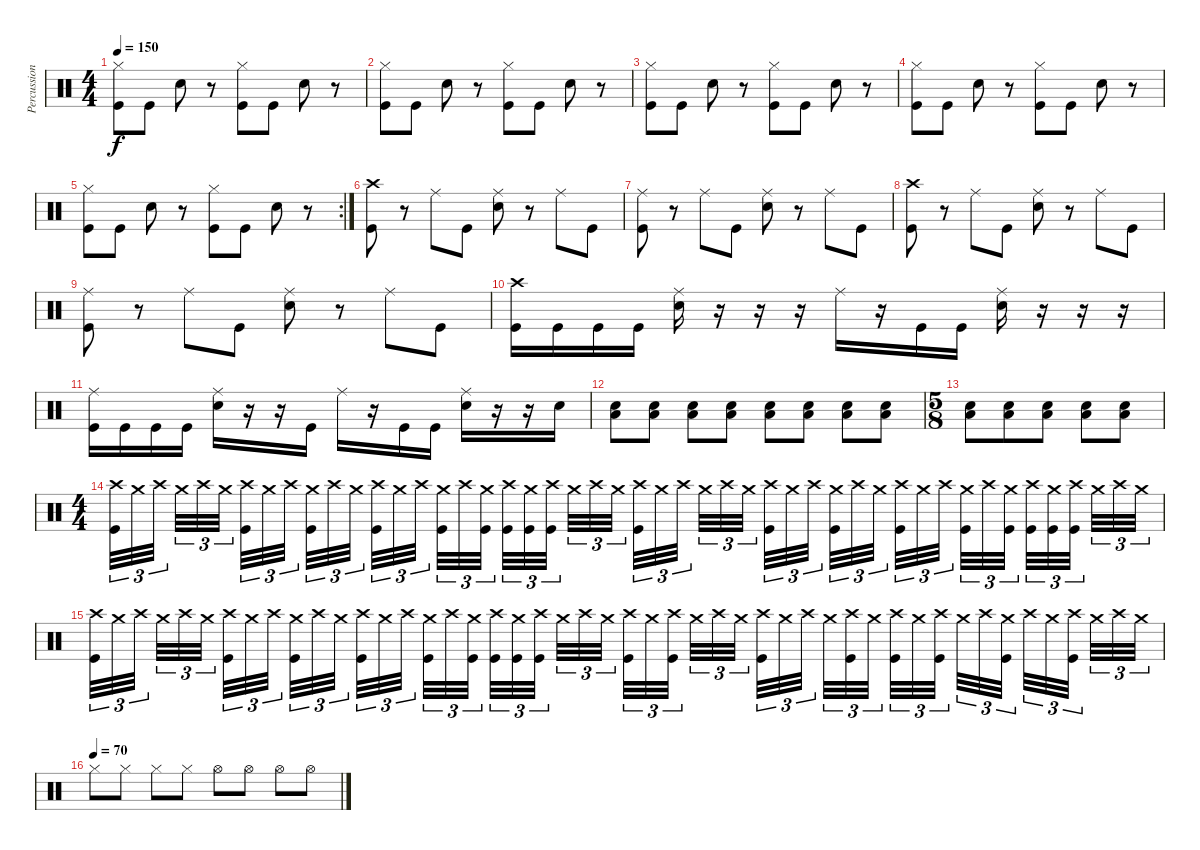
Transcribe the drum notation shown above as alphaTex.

\track ("Percussion" "Percussion") {instrument percussion}
\staff {score}
\articulation defaults
\ts (4 4)
\tempo 150
\clef neutral
\ks c
("Kick (hit)" "Hi-Hat (closed)").8{dy f} "Kick (hit)".8 "Hand Clap (hit)".8 r.8 ("Kick (hit)" "Hi-Hat (closed)").8 "Kick (hit)".8 "Hand Clap (hit)".8 r.8 |
("Kick (hit)" "Hi-Hat (closed)").8 "Kick (hit)".8 "Hand Clap (hit)".8 r.8 ("Kick (hit)" "Hi-Hat (closed)").8 "Kick (hit)".8 "Hand Clap (hit)".8 r.8 |
("Kick (hit)" "Hi-Hat (closed)").8 "Kick (hit)".8 "Hand Clap (hit)".8 r.8 ("Kick (hit)" "Hi-Hat (closed)").8 "Kick (hit)".8 "Hand Clap (hit)".8 r.8 |
("Kick (hit)" "Hi-Hat (closed)").8 "Kick (hit)".8 "Hand Clap (hit)".8 r.8 ("Kick (hit)" "Hi-Hat (closed)").8 "Kick (hit)".8 "Hand Clap (hit)".8 r.8 |
\rc 2
("Kick (hit)" "Hi-Hat (closed)").8 "Kick (hit)".8 "Hand Clap (hit)".8 r.8 ("Kick (hit)" "Hi-Hat (closed)").8 "Kick (hit)".8 "Hand Clap (hit)".8 r.8 |
("Kick (hit)" "Crash high (hit)").8 r.8 "Ride (middle)".8 "Kick (hit)".8 ("Electric Snare (hit)" "Ride (middle)").8 r.8 "Ride (middle)".8 "Kick (hit)".8 |
("Kick (hit)" "Ride (middle)").8 r.8 "Ride (middle)".8 "Kick (hit)".8 ("Electric Snare (hit)" "Ride (middle)").8 r.8 "Ride (middle)".8 "Kick (hit)".8 |
("Kick (hit)" "Crash high (hit)").8 r.8 "Ride (middle)".8 "Kick (hit)".8 ("Electric Snare (hit)" "Ride (middle)").8 r.8 "Ride (middle)".8 "Kick (hit)".8 |
("Kick (hit)" "Ride (middle)").8 r.8 "Ride (middle)".8 "Kick (hit)".8 ("Electric Snare (hit)" "Ride (middle)").8 r.8 "Ride (middle)".8 "Kick (hit)".8 |
("Kick (hit)" "Crash high (hit)").16 "Kick (hit)".16 "Kick (hit)".16 "Kick (hit)".16 ("Electric Snare (hit)" "Ride (middle)").16 r.16 r.16 r.16 "Ride (middle)".16 r.16 "Kick (hit)".16 "Kick (hit)".16 ("Electric Snare (hit)" "Ride (middle)").16 r.16 r.16 r.16 |
("Kick (hit)" "Ride (middle)").16 "Kick (hit)".16 "Kick (hit)".16 "Kick (hit)".16 ("Electric Snare (hit)" "Ride (middle)").16 r.16 r.16 "Kick (hit)".16 "Ride (middle)".16 r.16 "Kick (hit)".16 "Kick (hit)".16 ("Electric Snare (hit)" "Ride (middle)").16 r.16 r.16 "Electric Snare (hit)".16 |
("Electric Snare (hit)" "Low Floor Tom (hit)").8{volume 0} ("Electric Snare (hit)" "Low Floor Tom (hit)").8{volume 13} ("Electric Snare (hit)" "Low Floor Tom (hit)").8 ("Electric Snare (hit)" "Low Floor Tom (hit)").8 ("Electric Snare (hit)" "Low Floor Tom (hit)").8 ("Electric Snare (hit)" "Low Floor Tom (hit)").8 ("Electric Snare (hit)" "Low Floor Tom (hit)").8 ("Electric Snare (hit)" "Low Floor Tom (hit)").8 |
\ts (5 8)
("Electric Snare (hit)" "Low Floor Tom (hit)").8 ("Electric Snare (hit)" "Low Floor Tom (hit)").8 ("Electric Snare (hit)" "Low Floor Tom (hit)").8 ("Electric Snare (hit)" "Low Floor Tom (hit)").8 ("Electric Snare (hit)" "Low Floor Tom (hit)").8 |
\ts (4 4)
("Kick (hit)" "Crash high (hit)").32{tu (3 2)} "Crash medium (hit)".32{tu (3 2)} "Crash high (hit)".32{tu (3 2) beam splitsecondary} "Crash medium (hit)".32{tu (3 2)} "Crash high (hit)".32{tu (3 2)} "Crash medium (hit)".32{tu (3 2) beam splitsecondary} ("Kick (hit)" "Crash high (hit)").32{tu (3 2)} "Crash medium (hit)".32{tu (3 2)} "Crash high (hit)".32{tu (3 2) beam splitsecondary} ("Kick (hit)" "Crash medium (hit)").32{tu (3 2)} "Crash high (hit)".32{tu (3 2)} "Crash medium (hit)".32{tu (3 2)} ("Kick (hit)" "Crash high (hit)").32{tu (3 2)} "Crash medium (hit)".32{tu (3 2)} "Crash high (hit)".32{tu (3 2) beam splitsecondary} ("Kick (hit)" "Crash medium (hit)").32{tu (3 2)} "Crash high (hit)".32{tu (3 2)} ("Kick (hit)" "Crash medium (hit)").32{tu (3 2) beam splitsecondary} ("Kick (hit)" "Crash high (hit)").32{tu (3 2)} ("Kick (hit)" "Crash medium (hit)").32{tu (3 2)} ("Kick (hit)" "Crash high (hit)").32{tu (3 2) beam splitsecondary} "Crash medium (hit)".32{tu (3 2)} "Crash high (hit)".32{tu (3 2)} "Crash medium (hit)".32{tu (3 2)} ("Kick (hit)" "Crash high (hit)").32{tu (3 2)} "Crash medium (hit)".32{tu (3 2)} "Crash high (hit)".32{tu (3 2) beam splitsecondary} "Crash medium (hit)".32{tu (3 2)} "Crash high (hit)".32{tu (3 2)} "Crash medium (hit)".32{tu (3 2) beam splitsecondary} ("Kick (hit)" "Crash high (hit)").32{tu (3 2)} "Crash medium (hit)".32{tu (3 2)} "Crash high (hit)".32{tu (3 2) beam splitsecondary} ("Kick (hit)" "Crash medium (hit)").32{tu (3 2)} "Crash high (hit)".32{tu (3 2)} "Crash medium (hit)".32{tu (3 2)} ("Kick (hit)" "Crash high (hit)").32{tu (3 2)} "Crash medium (hit)".32{tu (3 2)} "Crash high (hit)".32{tu (3 2) beam splitsecondary} ("Kick (hit)" "Crash medium (hit)").32{tu (3 2)} "Crash high (hit)".32{tu (3 2)} ("Kick (hit)" "Crash medium (hit)").32{tu (3 2) beam splitsecondary} ("Kick (hit)" "Crash high (hit)").32{tu (3 2)} ("Kick (hit)" "Crash medium (hit)").32{tu (3 2)} ("Kick (hit)" "Crash high (hit)").32{tu (3 2) beam splitsecondary} "Crash medium (hit)".32{tu (3 2)} "Crash high (hit)".32{tu (3 2)} "Crash medium (hit)".32{tu (3 2)} |
("Kick (hit)" "Crash high (hit)").32{tu (3 2)} "Crash medium (hit)".32{tu (3 2)} "Crash high (hit)".32{tu (3 2) beam splitsecondary} "Crash medium (hit)".32{tu (3 2)} "Crash high (hit)".32{tu (3 2)} "Crash medium (hit)".32{tu (3 2) beam splitsecondary} ("Kick (hit)" "Crash high (hit)").32{tu (3 2)} "Crash medium (hit)".32{tu (3 2)} "Crash high (hit)".32{tu (3 2) beam splitsecondary} ("Kick (hit)" "Crash medium (hit)").32{tu (3 2)} "Crash high (hit)".32{tu (3 2)} "Crash medium (hit)".32{tu (3 2)} ("Kick (hit)" "Crash high (hit)").32{tu (3 2)} "Crash medium (hit)".32{tu (3 2)} "Crash high (hit)".32{tu (3 2) beam splitsecondary} ("Kick (hit)" "Crash medium (hit)").32{tu (3 2)} "Crash high (hit)".32{tu (3 2)} ("Kick (hit)" "Crash medium (hit)").32{tu (3 2) beam splitsecondary} ("Kick (hit)" "Crash high (hit)").32{tu (3 2)} ("Kick (hit)" "Crash medium (hit)").32{tu (3 2)} ("Kick (hit)" "Crash high (hit)").32{tu (3 2) beam splitsecondary} "Crash medium (hit)".32{tu (3 2)} "Crash high (hit)".32{tu (3 2)} "Crash medium (hit)".32{tu (3 2)} ("Kick (hit)" "Crash high (hit)").32{tu (3 2)} "Crash medium (hit)".32{tu (3 2)} ("Kick (hit)" "Crash high (hit)").32{tu (3 2) beam splitsecondary} "Crash medium (hit)".32{tu (3 2)} "Crash high (hit)".32{tu (3 2)} "Crash medium (hit)".32{tu (3 2) beam splitsecondary} ("Kick (hit)" "Crash high (hit)").32{tu (3 2)} "Crash medium (hit)".32{tu (3 2)} "Crash high (hit)".32{tu (3 2) beam splitsecondary} "Crash medium (hit)".32{tu (3 2)} ("Kick (hit)" "Crash high (hit)").32{tu (3 2)} "Crash medium (hit)".32{tu (3 2)} ("Kick (hit)" "Crash high (hit)").32{tu (3 2)} "Crash medium (hit)".32{tu (3 2)} ("Kick (hit)" "Crash high (hit)").32{tu (3 2) beam splitsecondary} "Crash medium (hit)".32{tu (3 2)} "Crash high (hit)".32{tu (3 2)} ("Kick (hit)" "Crash medium (hit)").32{tu (3 2) beam splitsecondary} "Crash high (hit)".32{tu (3 2)} "Crash medium (hit)".32{tu (3 2)} ("Kick (hit)" "Crash high (hit)").32{tu (3 2) beam splitsecondary} "Crash medium (hit)".32{tu (3 2)} "Crash high (hit)".32{tu (3 2)} "Crash medium (hit)".32{tu (3 2)} |
\tempo (70)
"Hi-Hat (closed)".8 "Hi-Hat (closed)".8 "Hi-Hat (closed)".8 "Hi-Hat (closed)".8 "Hi-Hat (open)".8 "Hi-Hat (open)".8 "Hi-Hat (open)".8 "Hi-Hat (open)".8
